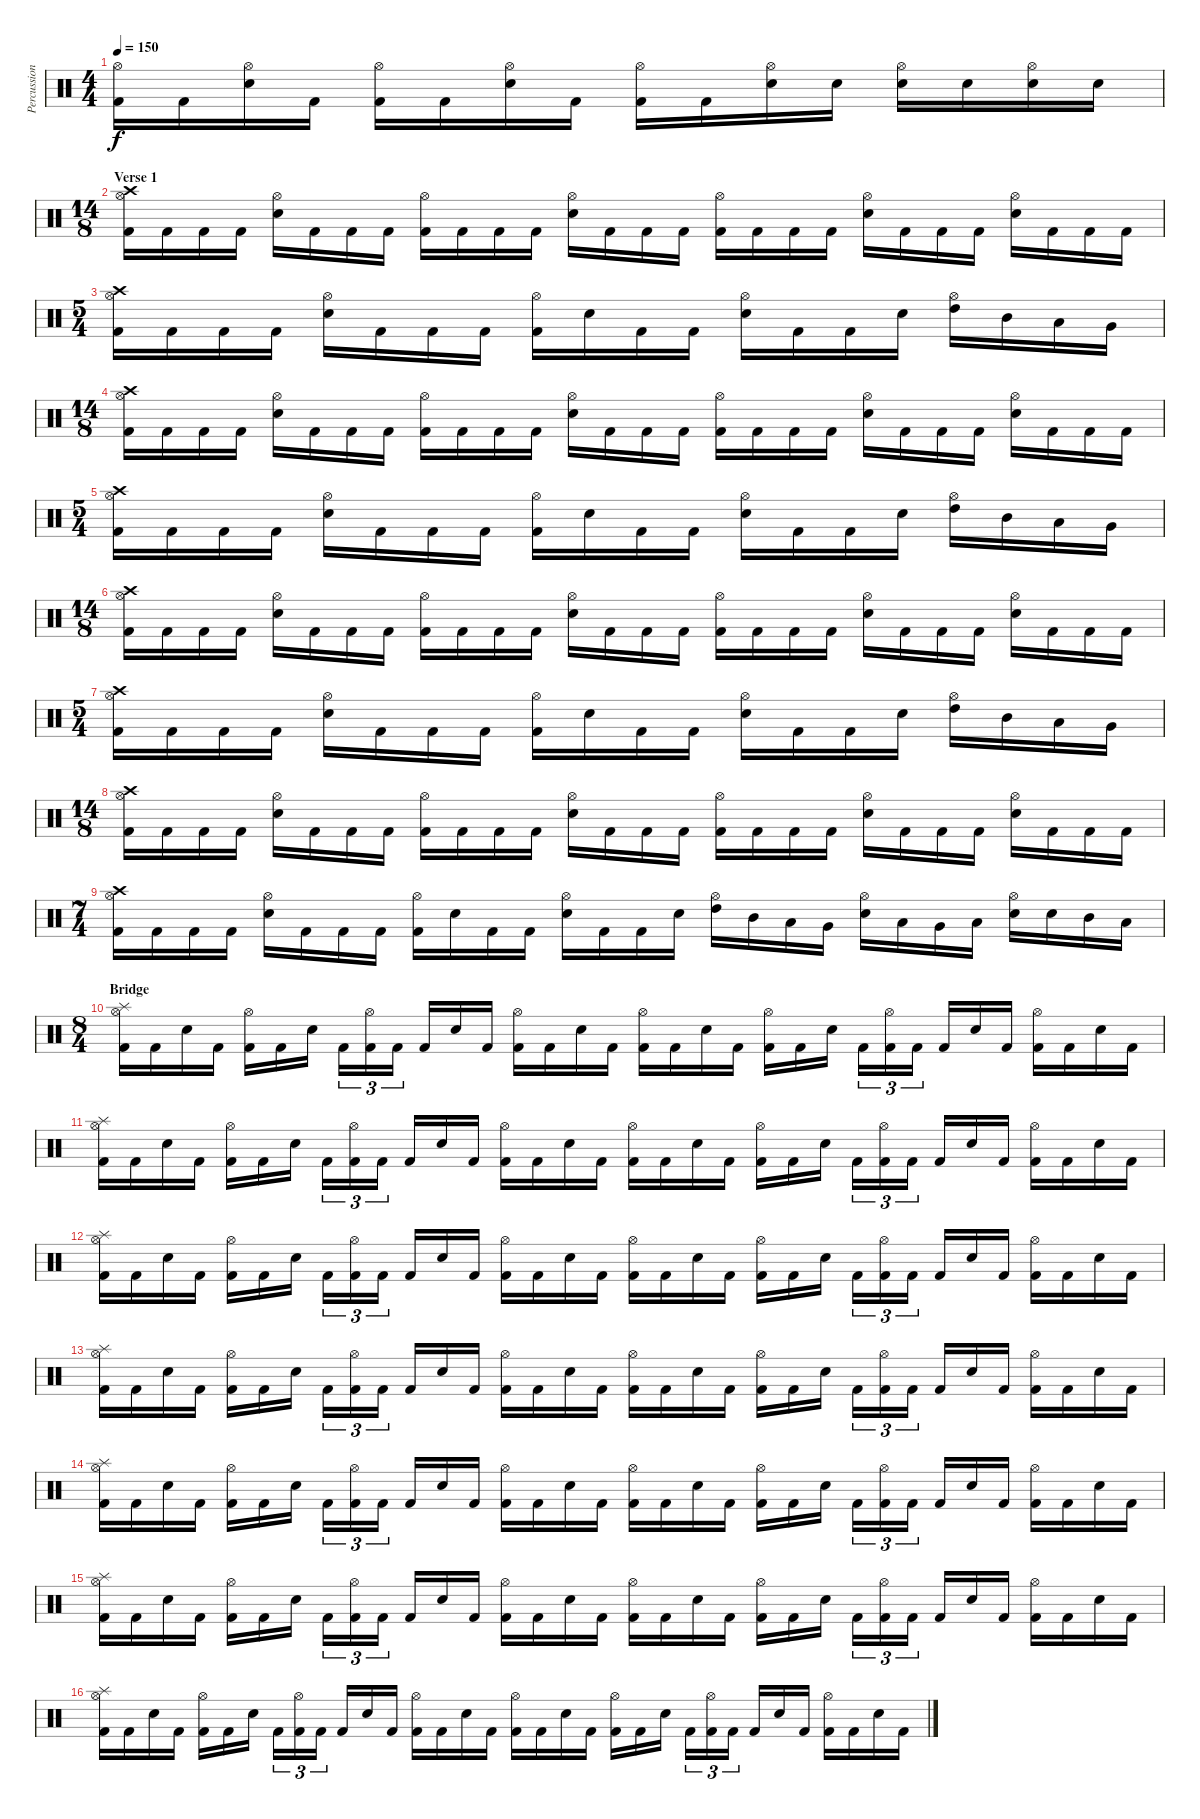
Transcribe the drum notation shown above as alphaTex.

\track ("Percussions" "Percussion") {instrument percussion}
\staff {score}
\articulation defaults
\ts (4 4)
\tempo 150
\clef neutral
\ks c
("Hi-Hat (open)" "Kick (hit) 2").16{dy f} "Kick (hit) 2".16 ("Hi-Hat (open)" "Electric Snare (hit)").16 "Kick (hit) 2".16 ("Hi-Hat (open)" "Kick (hit) 2").16 "Kick (hit) 2".16 ("Hi-Hat (open)" "Electric Snare (hit)").16 "Kick (hit) 2".16 ("Hi-Hat (open)" "Kick (hit) 2").16 "Kick (hit) 2".16 ("Hi-Hat (open)" "Electric Snare (hit)").16 "Electric Snare (hit)".16 ("Hi-Hat (open)" "Electric Snare (hit)").16 "Electric Snare (hit)".16 ("Hi-Hat (open)" "Electric Snare (hit)").16 "Electric Snare (hit)".16 |
\ts (14 8)
\section ("" "Verse 1")
("Crash high (hit)" "Hi-Hat (open)" "Kick (hit) 2").16 "Kick (hit) 2".16 "Kick (hit) 2".16 "Kick (hit) 2".16 ("Hi-Hat (open)" "Electric Snare (hit)").16 "Kick (hit) 2".16 "Kick (hit) 2".16 "Kick (hit) 2".16 ("Hi-Hat (open)" "Kick (hit) 2").16 "Kick (hit) 2".16 "Kick (hit) 2".16 "Kick (hit) 2".16 ("Hi-Hat (open)" "Electric Snare (hit)").16 "Kick (hit) 2".16 "Kick (hit) 2".16 "Kick (hit) 2".16 ("Hi-Hat (open)" "Kick (hit) 2").16 "Kick (hit) 2".16 "Kick (hit) 2".16 "Kick (hit) 2".16 ("Hi-Hat (open)" "Electric Snare (hit)").16 "Kick (hit) 2".16 "Kick (hit) 2".16 "Kick (hit) 2".16 ("Hi-Hat (open)" "Electric Snare (hit)").16 "Kick (hit) 2".16 "Kick (hit) 2".16 "Kick (hit) 2".16 |
\ts (5 4)
("Crash high (hit)" "Hi-Hat (open)" "Kick (hit) 2").16 "Kick (hit) 2".16 "Kick (hit) 2".16 "Kick (hit) 2".16 ("Hi-Hat (open)" "Electric Snare (hit)").16 "Kick (hit) 2".16 "Kick (hit) 2".16 "Kick (hit) 2".16 ("Hi-Hat (open)" "Kick (hit) 2").16 "Electric Snare (hit)".16 "Kick (hit) 2".16 "Kick (hit) 2".16 ("Hi-Hat (open)" "Electric Snare (hit)").16 "Kick (hit) 2".16 "Kick (hit) 2".16 "Electric Snare (hit)".16 ("Hi-Hat (open)" "High Tom (hit)").16 "Mid Tom (hit)".16 "Low Tom (hit)".16 "Very Low Tom (hit)".16 |
\ts (14 8)
("Crash high (hit)" "Hi-Hat (open)" "Kick (hit) 2").16 "Kick (hit) 2".16 "Kick (hit) 2".16 "Kick (hit) 2".16 ("Hi-Hat (open)" "Electric Snare (hit)").16 "Kick (hit) 2".16 "Kick (hit) 2".16 "Kick (hit) 2".16 ("Hi-Hat (open)" "Kick (hit) 2").16 "Kick (hit) 2".16 "Kick (hit) 2".16 "Kick (hit) 2".16 ("Hi-Hat (open)" "Electric Snare (hit)").16 "Kick (hit) 2".16 "Kick (hit) 2".16 "Kick (hit) 2".16 ("Hi-Hat (open)" "Kick (hit) 2").16 "Kick (hit) 2".16 "Kick (hit) 2".16 "Kick (hit) 2".16 ("Hi-Hat (open)" "Electric Snare (hit)").16 "Kick (hit) 2".16 "Kick (hit) 2".16 "Kick (hit) 2".16 ("Hi-Hat (open)" "Electric Snare (hit)").16 "Kick (hit) 2".16 "Kick (hit) 2".16 "Kick (hit) 2".16 |
\ts (5 4)
("Crash high (hit)" "Hi-Hat (open)" "Kick (hit) 2").16 "Kick (hit) 2".16 "Kick (hit) 2".16 "Kick (hit) 2".16 ("Hi-Hat (open)" "Electric Snare (hit)").16 "Kick (hit) 2".16 "Kick (hit) 2".16 "Kick (hit) 2".16 ("Hi-Hat (open)" "Kick (hit) 2").16 "Electric Snare (hit)".16 "Kick (hit) 2".16 "Kick (hit) 2".16 ("Hi-Hat (open)" "Electric Snare (hit)").16 "Kick (hit) 2".16 "Kick (hit) 2".16 "Electric Snare (hit)".16 ("Hi-Hat (open)" "High Tom (hit)").16 "Mid Tom (hit)".16 "Low Tom (hit)".16 "Very Low Tom (hit)".16 |
\ts (14 8)
("Crash high (hit)" "Hi-Hat (open)" "Kick (hit) 2").16 "Kick (hit) 2".16 "Kick (hit) 2".16 "Kick (hit) 2".16 ("Hi-Hat (open)" "Electric Snare (hit)").16 "Kick (hit) 2".16 "Kick (hit) 2".16 "Kick (hit) 2".16 ("Hi-Hat (open)" "Kick (hit) 2").16 "Kick (hit) 2".16 "Kick (hit) 2".16 "Kick (hit) 2".16 ("Hi-Hat (open)" "Electric Snare (hit)").16 "Kick (hit) 2".16 "Kick (hit) 2".16 "Kick (hit) 2".16 ("Hi-Hat (open)" "Kick (hit) 2").16 "Kick (hit) 2".16 "Kick (hit) 2".16 "Kick (hit) 2".16 ("Hi-Hat (open)" "Electric Snare (hit)").16 "Kick (hit) 2".16 "Kick (hit) 2".16 "Kick (hit) 2".16 ("Hi-Hat (open)" "Electric Snare (hit)").16 "Kick (hit) 2".16 "Kick (hit) 2".16 "Kick (hit) 2".16 |
\ts (5 4)
("Crash high (hit)" "Hi-Hat (open)" "Kick (hit) 2").16 "Kick (hit) 2".16 "Kick (hit) 2".16 "Kick (hit) 2".16 ("Hi-Hat (open)" "Electric Snare (hit)").16 "Kick (hit) 2".16 "Kick (hit) 2".16 "Kick (hit) 2".16 ("Hi-Hat (open)" "Kick (hit) 2").16 "Electric Snare (hit)".16 "Kick (hit) 2".16 "Kick (hit) 2".16 ("Hi-Hat (open)" "Electric Snare (hit)").16 "Kick (hit) 2".16 "Kick (hit) 2".16 "Electric Snare (hit)".16 ("Hi-Hat (open)" "High Tom (hit)").16 "Mid Tom (hit)".16 "Low Tom (hit)".16 "Very Low Tom (hit)".16 |
\ts (14 8)
("Crash high (hit)" "Hi-Hat (open)" "Kick (hit) 2").16 "Kick (hit) 2".16 "Kick (hit) 2".16 "Kick (hit) 2".16 ("Hi-Hat (open)" "Electric Snare (hit)").16 "Kick (hit) 2".16 "Kick (hit) 2".16 "Kick (hit) 2".16 ("Hi-Hat (open)" "Kick (hit) 2").16 "Kick (hit) 2".16 "Kick (hit) 2".16 "Kick (hit) 2".16 ("Hi-Hat (open)" "Electric Snare (hit)").16 "Kick (hit) 2".16 "Kick (hit) 2".16 "Kick (hit) 2".16 ("Hi-Hat (open)" "Kick (hit) 2").16 "Kick (hit) 2".16 "Kick (hit) 2".16 "Kick (hit) 2".16 ("Hi-Hat (open)" "Electric Snare (hit)").16 "Kick (hit) 2".16 "Kick (hit) 2".16 "Kick (hit) 2".16 ("Hi-Hat (open)" "Electric Snare (hit)").16 "Kick (hit) 2".16 "Kick (hit) 2".16 "Kick (hit) 2".16 |
\ts (7 4)
("Crash high (hit)" "Hi-Hat (open)" "Kick (hit) 2").16 "Kick (hit) 2".16 "Kick (hit) 2".16 "Kick (hit) 2".16 ("Hi-Hat (open)" "Electric Snare (hit)").16 "Kick (hit) 2".16 "Kick (hit) 2".16 "Kick (hit) 2".16 ("Hi-Hat (open)" "Kick (hit) 2").16 "Electric Snare (hit)".16 "Kick (hit) 2".16 "Kick (hit) 2".16 ("Hi-Hat (open)" "Electric Snare (hit)").16 "Kick (hit) 2".16 "Kick (hit) 2".16 "Electric Snare (hit)".16 ("Hi-Hat (open)" "High Tom (hit)").16 "Mid Tom (hit)".16 "Low Tom (hit)".16 "Very Low Tom (hit)".16 ("Hi-Hat (open)" "Electric Snare (hit)").16 "Low Tom (hit)".16 "Very Low Tom (hit)".16 "Low Floor Tom (hit)".16 ("Hi-Hat (open)" "Electric Snare (hit)").16 "Electric Snare (hit)".16 "Mid Tom (hit)".16 "Low Tom (hit)".16 |
\ts (8 4)
\section ("" "Bridge")
("Splash (hit)" "Hi-Hat (open)" "Kick (hit) 2").16 "Kick (hit) 2".16 "Electric Snare (hit)".16 "Kick (hit) 2".16 ("Hi-Hat (open)" "Kick (hit) 2").16 "Kick (hit) 2".16 "Electric Snare (hit)".16 "Kick (hit) 2".16{tu (3 2)} ("Hi-Hat (open)" "Kick (hit) 2").16{tu (3 2)} "Kick (hit) 2".16{tu (3 2)} "Kick (hit) 2".16 "Electric Snare (hit)".16 "Kick (hit) 2".16 ("Hi-Hat (open)" "Kick (hit) 2").16 "Kick (hit) 2".16 "Electric Snare (hit)".16 "Kick (hit) 2".16 ("Hi-Hat (open)" "Kick (hit) 2").16 "Kick (hit) 2".16 "Electric Snare (hit)".16 "Kick (hit) 2".16 ("Hi-Hat (open)" "Kick (hit) 2").16 "Kick (hit) 2".16 "Electric Snare (hit)".16 "Kick (hit) 2".16{tu (3 2)} ("Hi-Hat (open)" "Kick (hit) 2").16{tu (3 2)} "Kick (hit) 2".16{tu (3 2)} "Kick (hit) 2".16 "Electric Snare (hit)".16 "Kick (hit) 2".16 ("Hi-Hat (open)" "Kick (hit) 2").16 "Kick (hit) 2".16 "Electric Snare (hit)".16 "Kick (hit) 2".16 |
("Splash (hit)" "Hi-Hat (open)" "Kick (hit) 2").16 "Kick (hit) 2".16 "Electric Snare (hit)".16 "Kick (hit) 2".16 ("Hi-Hat (open)" "Kick (hit) 2").16 "Kick (hit) 2".16 "Electric Snare (hit)".16 "Kick (hit) 2".16{tu (3 2)} ("Hi-Hat (open)" "Kick (hit) 2").16{tu (3 2)} "Kick (hit) 2".16{tu (3 2)} "Kick (hit) 2".16 "Electric Snare (hit)".16 "Kick (hit) 2".16 ("Hi-Hat (open)" "Kick (hit) 2").16 "Kick (hit) 2".16 "Electric Snare (hit)".16 "Kick (hit) 2".16 ("Hi-Hat (open)" "Kick (hit) 2").16 "Kick (hit) 2".16 "Electric Snare (hit)".16 "Kick (hit) 2".16 ("Hi-Hat (open)" "Kick (hit) 2").16 "Kick (hit) 2".16 "Electric Snare (hit)".16 "Kick (hit) 2".16{tu (3 2)} ("Hi-Hat (open)" "Kick (hit) 2").16{tu (3 2)} "Kick (hit) 2".16{tu (3 2)} "Kick (hit) 2".16 "Electric Snare (hit)".16 "Kick (hit) 2".16 ("Hi-Hat (open)" "Kick (hit) 2").16 "Kick (hit) 2".16 "Electric Snare (hit)".16 "Kick (hit) 2".16 |
("Splash (hit)" "Hi-Hat (open)" "Kick (hit) 2").16 "Kick (hit) 2".16 "Electric Snare (hit)".16 "Kick (hit) 2".16 ("Hi-Hat (open)" "Kick (hit) 2").16 "Kick (hit) 2".16 "Electric Snare (hit)".16 "Kick (hit) 2".16{tu (3 2)} ("Hi-Hat (open)" "Kick (hit) 2").16{tu (3 2)} "Kick (hit) 2".16{tu (3 2)} "Kick (hit) 2".16 "Electric Snare (hit)".16 "Kick (hit) 2".16 ("Hi-Hat (open)" "Kick (hit) 2").16 "Kick (hit) 2".16 "Electric Snare (hit)".16 "Kick (hit) 2".16 ("Hi-Hat (open)" "Kick (hit) 2").16 "Kick (hit) 2".16 "Electric Snare (hit)".16 "Kick (hit) 2".16 ("Hi-Hat (open)" "Kick (hit) 2").16 "Kick (hit) 2".16 "Electric Snare (hit)".16 "Kick (hit) 2".16{tu (3 2)} ("Hi-Hat (open)" "Kick (hit) 2").16{tu (3 2)} "Kick (hit) 2".16{tu (3 2)} "Kick (hit) 2".16 "Electric Snare (hit)".16 "Kick (hit) 2".16 ("Hi-Hat (open)" "Kick (hit) 2").16 "Kick (hit) 2".16 "Electric Snare (hit)".16 "Kick (hit) 2".16 |
("Splash (hit)" "Hi-Hat (open)" "Kick (hit) 2").16 "Kick (hit) 2".16 "Electric Snare (hit)".16 "Kick (hit) 2".16 ("Hi-Hat (open)" "Kick (hit) 2").16 "Kick (hit) 2".16 "Electric Snare (hit)".16 "Kick (hit) 2".16{tu (3 2)} ("Hi-Hat (open)" "Kick (hit) 2").16{tu (3 2)} "Kick (hit) 2".16{tu (3 2)} "Kick (hit) 2".16 "Electric Snare (hit)".16 "Kick (hit) 2".16 ("Hi-Hat (open)" "Kick (hit) 2").16 "Kick (hit) 2".16 "Electric Snare (hit)".16 "Kick (hit) 2".16 ("Hi-Hat (open)" "Kick (hit) 2").16 "Kick (hit) 2".16 "Electric Snare (hit)".16 "Kick (hit) 2".16 ("Hi-Hat (open)" "Kick (hit) 2").16 "Kick (hit) 2".16 "Electric Snare (hit)".16 "Kick (hit) 2".16{tu (3 2)} ("Hi-Hat (open)" "Kick (hit) 2").16{tu (3 2)} "Kick (hit) 2".16{tu (3 2)} "Kick (hit) 2".16 "Electric Snare (hit)".16 "Kick (hit) 2".16 ("Hi-Hat (open)" "Kick (hit) 2").16 "Kick (hit) 2".16 "Electric Snare (hit)".16 "Kick (hit) 2".16 |
("Splash (hit)" "Hi-Hat (open)" "Kick (hit) 2").16 "Kick (hit) 2".16 "Electric Snare (hit)".16 "Kick (hit) 2".16 ("Hi-Hat (open)" "Kick (hit) 2").16 "Kick (hit) 2".16 "Electric Snare (hit)".16 "Kick (hit) 2".16{tu (3 2)} ("Hi-Hat (open)" "Kick (hit) 2").16{tu (3 2)} "Kick (hit) 2".16{tu (3 2)} "Kick (hit) 2".16 "Electric Snare (hit)".16 "Kick (hit) 2".16 ("Hi-Hat (open)" "Kick (hit) 2").16 "Kick (hit) 2".16 "Electric Snare (hit)".16 "Kick (hit) 2".16 ("Hi-Hat (open)" "Kick (hit) 2").16 "Kick (hit) 2".16 "Electric Snare (hit)".16 "Kick (hit) 2".16 ("Hi-Hat (open)" "Kick (hit) 2").16 "Kick (hit) 2".16 "Electric Snare (hit)".16 "Kick (hit) 2".16{tu (3 2)} ("Hi-Hat (open)" "Kick (hit) 2").16{tu (3 2)} "Kick (hit) 2".16{tu (3 2)} "Kick (hit) 2".16 "Electric Snare (hit)".16 "Kick (hit) 2".16 ("Hi-Hat (open)" "Kick (hit) 2").16 "Kick (hit) 2".16 "Electric Snare (hit)".16 "Kick (hit) 2".16 |
("Splash (hit)" "Hi-Hat (open)" "Kick (hit) 2").16 "Kick (hit) 2".16 "Electric Snare (hit)".16 "Kick (hit) 2".16 ("Hi-Hat (open)" "Kick (hit) 2").16 "Kick (hit) 2".16 "Electric Snare (hit)".16 "Kick (hit) 2".16{tu (3 2)} ("Hi-Hat (open)" "Kick (hit) 2").16{tu (3 2)} "Kick (hit) 2".16{tu (3 2)} "Kick (hit) 2".16 "Electric Snare (hit)".16 "Kick (hit) 2".16 ("Hi-Hat (open)" "Kick (hit) 2").16 "Kick (hit) 2".16 "Electric Snare (hit)".16 "Kick (hit) 2".16 ("Hi-Hat (open)" "Kick (hit) 2").16 "Kick (hit) 2".16 "Electric Snare (hit)".16 "Kick (hit) 2".16 ("Hi-Hat (open)" "Kick (hit) 2").16 "Kick (hit) 2".16 "Electric Snare (hit)".16 "Kick (hit) 2".16{tu (3 2)} ("Hi-Hat (open)" "Kick (hit) 2").16{tu (3 2)} "Kick (hit) 2".16{tu (3 2)} "Kick (hit) 2".16 "Electric Snare (hit)".16 "Kick (hit) 2".16 ("Hi-Hat (open)" "Kick (hit) 2").16 "Kick (hit) 2".16 "Electric Snare (hit)".16 "Kick (hit) 2".16 |
("Splash (hit)" "Hi-Hat (open)" "Kick (hit) 2").16 "Kick (hit) 2".16 "Electric Snare (hit)".16 "Kick (hit) 2".16 ("Hi-Hat (open)" "Kick (hit) 2").16 "Kick (hit) 2".16 "Electric Snare (hit)".16 "Kick (hit) 2".16{tu (3 2)} ("Hi-Hat (open)" "Kick (hit) 2").16{tu (3 2)} "Kick (hit) 2".16{tu (3 2)} "Kick (hit) 2".16 "Electric Snare (hit)".16 "Kick (hit) 2".16 ("Hi-Hat (open)" "Kick (hit) 2").16 "Kick (hit) 2".16 "Electric Snare (hit)".16 "Kick (hit) 2".16 ("Hi-Hat (open)" "Kick (hit) 2").16 "Kick (hit) 2".16 "Electric Snare (hit)".16 "Kick (hit) 2".16 ("Hi-Hat (open)" "Kick (hit) 2").16 "Kick (hit) 2".16 "Electric Snare (hit)".16 "Kick (hit) 2".16{tu (3 2)} ("Hi-Hat (open)" "Kick (hit) 2").16{tu (3 2)} "Kick (hit) 2".16{tu (3 2)} "Kick (hit) 2".16 "Electric Snare (hit)".16 "Kick (hit) 2".16 ("Hi-Hat (open)" "Kick (hit) 2").16 "Kick (hit) 2".16 "Electric Snare (hit)".16 "Kick (hit) 2".16
